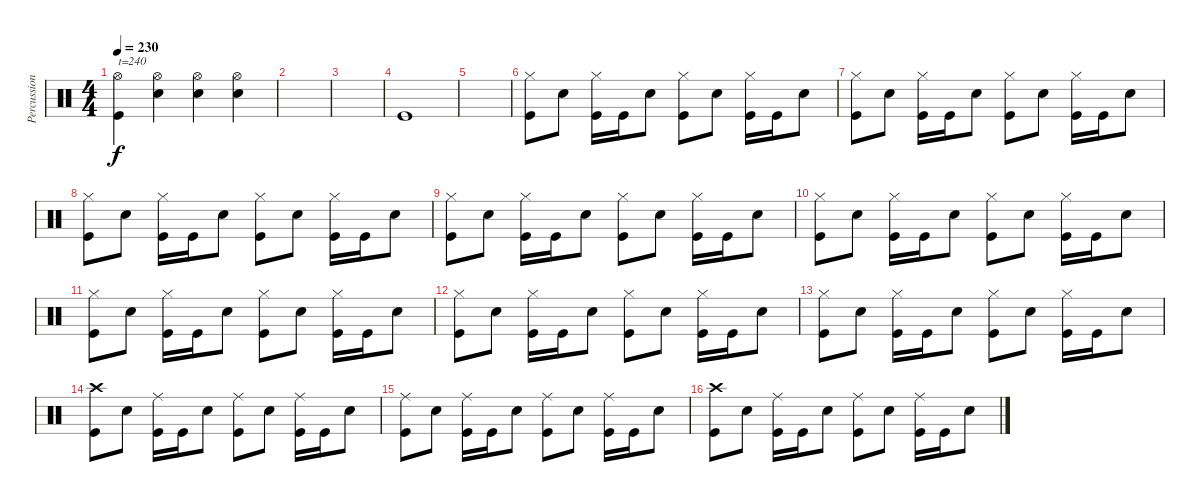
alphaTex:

\track ("Percussions" "Percussion") {instrument percussion}
\staff {score}
\articulation defaults
\ts (4 4)
\tempo 230
\clef neutral
\ks c
("Hi-Hat (open)" "Kick (hit)").4{txt "t=240" dy f} ("Hi-Hat (open)" "Electric Snare (hit)").4 ("Hi-Hat (open)" "Electric Snare (hit)").4 ("Hi-Hat (open)" "Electric Snare (hit)").4 |
|
|
"Kick (hit)".1 |
|
("Hi-Hat (closed)" "Kick (hit)").8 "Electric Snare (hit)".8 ("Hi-Hat (closed)" "Kick (hit)").16 "Kick (hit)".16 "Electric Snare (hit)".8 ("Hi-Hat (closed)" "Kick (hit)").8 "Electric Snare (hit)".8 ("Hi-Hat (closed)" "Kick (hit)").16 "Kick (hit)".16 "Electric Snare (hit)".8 |
("Hi-Hat (closed)" "Kick (hit)").8 "Electric Snare (hit)".8 ("Hi-Hat (closed)" "Kick (hit)").16 "Kick (hit)".16 "Electric Snare (hit)".8 ("Hi-Hat (closed)" "Kick (hit)").8 "Electric Snare (hit)".8 ("Hi-Hat (closed)" "Kick (hit)").16 "Kick (hit)".16 "Electric Snare (hit)".8 |
("Hi-Hat (closed)" "Kick (hit)").8 "Electric Snare (hit)".8 ("Hi-Hat (closed)" "Kick (hit)").16 "Kick (hit)".16 "Electric Snare (hit)".8 ("Hi-Hat (closed)" "Kick (hit)").8 "Electric Snare (hit)".8 ("Hi-Hat (closed)" "Kick (hit)").16 "Kick (hit)".16 "Electric Snare (hit)".8 |
("Hi-Hat (closed)" "Kick (hit)").8 "Electric Snare (hit)".8 ("Hi-Hat (closed)" "Kick (hit)").16 "Kick (hit)".16 "Electric Snare (hit)".8 ("Hi-Hat (closed)" "Kick (hit)").8 "Electric Snare (hit)".8 ("Hi-Hat (closed)" "Kick (hit)").16 "Kick (hit)".16 "Electric Snare (hit)".8 |
("Hi-Hat (closed)" "Kick (hit)").8 "Electric Snare (hit)".8 ("Hi-Hat (closed)" "Kick (hit)").16 "Kick (hit)".16 "Electric Snare (hit)".8 ("Hi-Hat (closed)" "Kick (hit)").8 "Electric Snare (hit)".8 ("Hi-Hat (closed)" "Kick (hit)").16 "Kick (hit)".16 "Electric Snare (hit)".8 |
("Hi-Hat (closed)" "Kick (hit)").8 "Electric Snare (hit)".8 ("Hi-Hat (closed)" "Kick (hit)").16 "Kick (hit)".16 "Electric Snare (hit)".8 ("Hi-Hat (closed)" "Kick (hit)").8 "Electric Snare (hit)".8 ("Hi-Hat (closed)" "Kick (hit)").16 "Kick (hit)".16 "Electric Snare (hit)".8 |
("Hi-Hat (closed)" "Kick (hit)").8 "Electric Snare (hit)".8 ("Hi-Hat (closed)" "Kick (hit)").16 "Kick (hit)".16 "Electric Snare (hit)".8 ("Hi-Hat (closed)" "Kick (hit)").8 "Electric Snare (hit)".8 ("Hi-Hat (closed)" "Kick (hit)").16 "Kick (hit)".16 "Electric Snare (hit)".8 |
("Hi-Hat (closed)" "Kick (hit)").8 "Electric Snare (hit)".8 ("Hi-Hat (closed)" "Kick (hit)").16 "Kick (hit)".16 "Electric Snare (hit)".8 ("Hi-Hat (closed)" "Kick (hit)").8 "Electric Snare (hit)".8 ("Hi-Hat (closed)" "Kick (hit)").16 "Kick (hit)".16 "Electric Snare (hit)".8 |
("Crash high (hit)" "Kick (hit)").8 "Electric Snare (hit)".8 ("Ride (middle)" "Kick (hit)").16 "Kick (hit)".16 "Electric Snare (hit)".8 ("Ride (middle)" "Kick (hit)").8 "Electric Snare (hit)".8 ("Ride (middle)" "Kick (hit)").16 "Kick (hit)".16 "Electric Snare (hit)".8 |
("Ride (middle)" "Kick (hit)").8 "Electric Snare (hit)".8 ("Ride (middle)" "Kick (hit)").16 "Kick (hit)".16 "Electric Snare (hit)".8 ("Ride (middle)" "Kick (hit)").8 "Electric Snare (hit)".8 ("Ride (middle)" "Kick (hit)").16 "Kick (hit)".16 "Electric Snare (hit)".8 |
("Crash high (hit)" "Kick (hit)").8 "Electric Snare (hit)".8 ("Ride (middle)" "Kick (hit)").16 "Kick (hit)".16 "Electric Snare (hit)".8 ("Ride (middle)" "Kick (hit)").8 "Electric Snare (hit)".8 ("Ride (middle)" "Kick (hit)").16 "Kick (hit)".16 "Electric Snare (hit)".8
